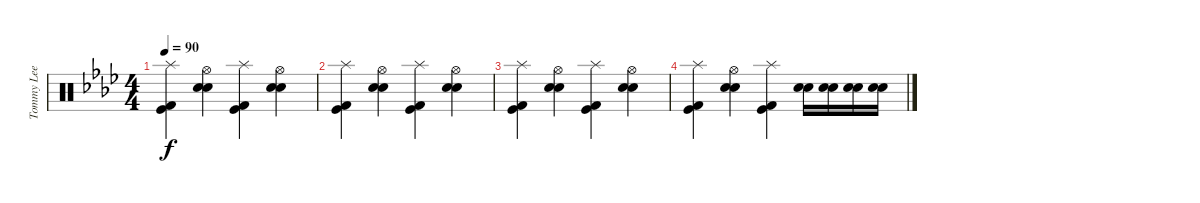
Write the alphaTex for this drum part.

\track ("Tommy Lee" "Tommy Lee") {instrument percussion}
\staff {score}
\articulation defaults
\ts (4 4)
\tempo 90
\clef neutral
\ks ab
("Splash (hit)" "Kick (hit) 2" "Kick (hit)").4{dy f volume 0} ("Hi-Hat (open)" "Electric Snare (hit)" "Snare (hit) 2").4 ("Splash (hit)" "Kick (hit) 2" "Kick (hit)").4 ("Hi-Hat (open)" "Electric Snare (hit)" "Snare (hit) 2").4 |
("Splash (hit)" "Kick (hit) 2" "Kick (hit)").4 ("Hi-Hat (open)" "Electric Snare (hit)" "Snare (hit) 2").4 ("Splash (hit)" "Kick (hit) 2" "Kick (hit)").4 ("Hi-Hat (open)" "Electric Snare (hit)" "Snare (hit) 2").4 |
("Splash (hit)" "Kick (hit) 2" "Kick (hit)").4 ("Hi-Hat (open)" "Electric Snare (hit)" "Snare (hit) 2").4 ("Splash (hit)" "Kick (hit) 2" "Kick (hit)").4 ("Hi-Hat (open)" "Electric Snare (hit)" "Snare (hit) 2").4 |
("Splash (hit)" "Kick (hit) 2" "Kick (hit)").4 ("Hi-Hat (open)" "Electric Snare (hit)" "Snare (hit) 2").4 ("Splash (hit)" "Kick (hit) 2" "Kick (hit)").4 ("Electric Snare (hit)" "Snare (hit) 2").16 ("Electric Snare (hit)" "Snare (hit) 2").16 ("Electric Snare (hit)" "Snare (hit) 2").16 ("Electric Snare (hit)" "Snare (hit) 2").16
